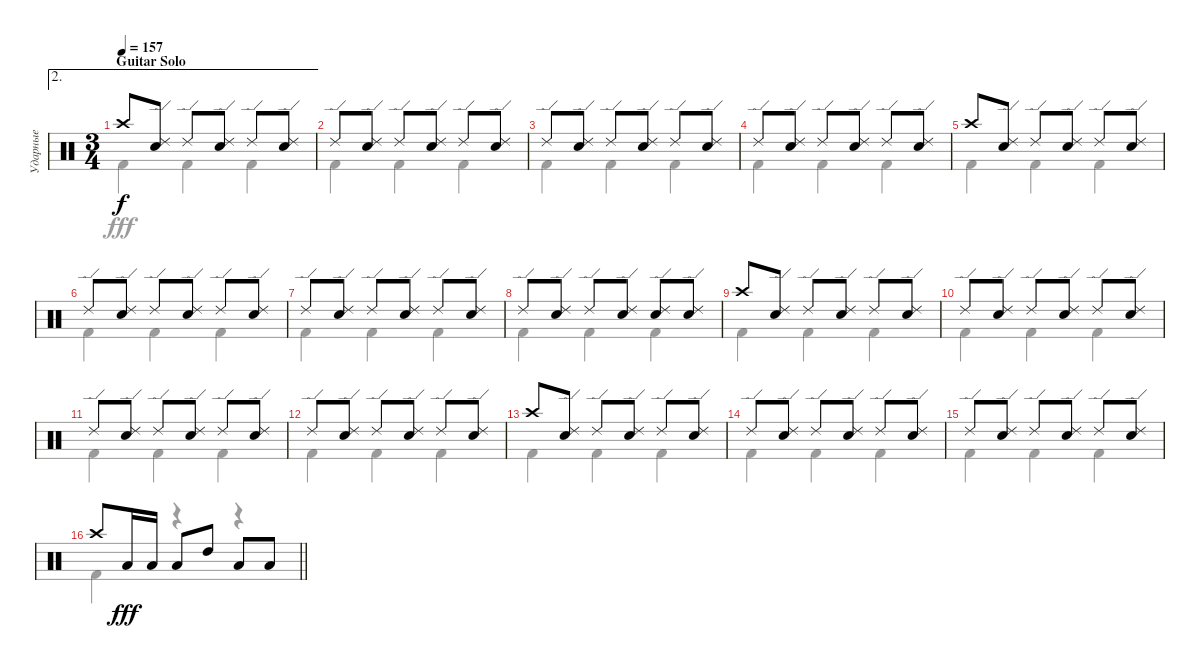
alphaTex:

\track ("Ударные" "Ударные") {instrument percussion}
\staff {score}
\articulation defaults
\voice
\ae 2
\ts (3 4)
\section ("" "Guitar Solo")
\tempo 157
\clef neutral
\ks c "Crash high (hit)".8{dy f}
("Ride (edge) 2" "Electric Snare (hit)").8 "Ride (edge) 2".8 ("Ride (edge) 2" "Electric Snare (hit)").8 "Ride (edge) 2".8 ("Ride (edge) 2" "Electric Snare (hit)").8 |
"Ride (edge) 2".8 ("Ride (edge) 2" "Electric Snare (hit)").8 "Ride (edge) 2".8 ("Ride (edge) 2" "Electric Snare (hit)").8 "Ride (edge) 2".8 ("Ride (edge) 2" "Electric Snare (hit)").8 |
"Ride (edge) 2".8 ("Ride (edge) 2" "Electric Snare (hit)").8 "Ride (edge) 2".8 ("Ride (edge) 2" "Electric Snare (hit)").8 "Ride (edge) 2".8 ("Ride (edge) 2" "Electric Snare (hit)").8 |
"Ride (edge) 2".8 ("Ride (edge) 2" "Electric Snare (hit)").8 "Ride (edge) 2".8 ("Ride (edge) 2" "Electric Snare (hit)").8 "Ride (edge) 2".8 ("Ride (edge) 2" "Electric Snare (hit)").8 |
"Crash high (hit)".8 ("Ride (edge) 2" "Electric Snare (hit)").8 "Ride (edge) 2".8 ("Ride (edge) 2" "Electric Snare (hit)").8 "Ride (edge) 2".8 ("Ride (edge) 2" "Electric Snare (hit)").8 |
"Ride (edge) 2".8 ("Ride (edge) 2" "Electric Snare (hit)").8 "Ride (edge) 2".8 ("Ride (edge) 2" "Electric Snare (hit)").8 "Ride (edge) 2".8 ("Ride (edge) 2" "Electric Snare (hit)").8 |
"Ride (edge) 2".8 ("Ride (edge) 2" "Electric Snare (hit)").8 "Ride (edge) 2".8 ("Ride (edge) 2" "Electric Snare (hit)").8 "Ride (edge) 2".8 ("Ride (edge) 2" "Electric Snare (hit)").8 |
"Ride (edge) 2".8 ("Ride (edge) 2" "Electric Snare (hit)").8 "Ride (edge) 2".8 ("Ride (edge) 2" "Electric Snare (hit)").8 ("Ride (edge) 2" "Electric Snare (hit)").8 ("Ride (edge) 2" "Electric Snare (hit)").8 |
"Crash high (hit)".8 ("Ride (edge) 2" "Electric Snare (hit)").8 "Ride (edge) 2".8 ("Ride (edge) 2" "Electric Snare (hit)").8 "Ride (edge) 2".8 ("Ride (edge) 2" "Electric Snare (hit)").8 |
"Ride (edge) 2".8 ("Ride (edge) 2" "Electric Snare (hit)").8 "Ride (edge) 2".8 ("Ride (edge) 2" "Electric Snare (hit)").8 "Ride (edge) 2".8 ("Ride (edge) 2" "Electric Snare (hit)").8 |
"Ride (edge) 2".8 ("Ride (edge) 2" "Electric Snare (hit)").8 "Ride (edge) 2".8 ("Ride (edge) 2" "Electric Snare (hit)").8 "Ride (edge) 2".8 ("Ride (edge) 2" "Electric Snare (hit)").8 |
"Ride (edge) 2".8 ("Ride (edge) 2" "Electric Snare (hit)").8 "Ride (edge) 2".8 ("Ride (edge) 2" "Electric Snare (hit)").8 "Ride (edge) 2".8 ("Ride (edge) 2" "Electric Snare (hit)").8 |
"Crash high (hit)".8 ("Ride (edge) 2" "Electric Snare (hit)").8 "Ride (edge) 2".8 ("Ride (edge) 2" "Electric Snare (hit)").8 "Ride (edge) 2".8 ("Ride (edge) 2" "Electric Snare (hit)").8 |
"Ride (edge) 2".8 ("Ride (edge) 2" "Electric Snare (hit)").8 "Ride (edge) 2".8 ("Ride (edge) 2" "Electric Snare (hit)").8 "Ride (edge) 2".8 ("Ride (edge) 2" "Electric Snare (hit)").8 |
"Ride (edge) 2".8 ("Ride (edge) 2" "Electric Snare (hit)").8 "Ride (edge) 2".8 ("Ride (edge) 2" "Electric Snare (hit)").8 "Ride (edge) 2".8 ("Ride (edge) 2" "Electric Snare (hit)").8 |
\barLineRight lightlight "Crash high (hit)".8 "Low Floor Tom (hit)".16{dy fff} "Low Floor Tom (hit)".16 "Low Floor Tom (hit)".8 "High Tom (hit)".8 "Low Tom (hit)".8 "Low Floor Tom (hit)".8
\voice
\clef neutral
\ottava regular
\simile none
\ks c "Kick (hit) 2".4{dy fff} "Kick (hit) 2".4 "Kick (hit) 2".4
|
"Kick (hit) 2".4 "Kick (hit) 2".4 "Kick (hit) 2".4 |
"Kick (hit) 2".4 "Kick (hit) 2".4 "Kick (hit) 2".4 |
"Kick (hit) 2".4 "Kick (hit) 2".4 "Kick (hit) 2".4 |
"Kick (hit) 2".4 "Kick (hit) 2".4 "Kick (hit) 2".4 |
"Kick (hit) 2".4 "Kick (hit) 2".4 "Kick (hit) 2".4 |
"Kick (hit) 2".4 "Kick (hit) 2".4 "Kick (hit) 2".4 |
"Kick (hit) 2".4 "Kick (hit) 2".4 "Kick (hit) 2".4 |
"Kick (hit) 2".4 "Kick (hit) 2".4 "Kick (hit) 2".4 |
"Kick (hit) 2".4 "Kick (hit) 2".4 "Kick (hit) 2".4 |
"Kick (hit) 2".4 "Kick (hit) 2".4 "Kick (hit) 2".4 |
"Kick (hit) 2".4 "Kick (hit) 2".4 "Kick (hit) 2".4 |
"Kick (hit) 2".4 "Kick (hit) 2".4 "Kick (hit) 2".4 |
"Kick (hit) 2".4 "Kick (hit) 2".4 "Kick (hit) 2".4 |
"Kick (hit) 2".4 "Kick (hit) 2".4 "Kick (hit) 2".4 |
\barLineRight lightlight "Kick (hit) 2".4
r.4 r.4
